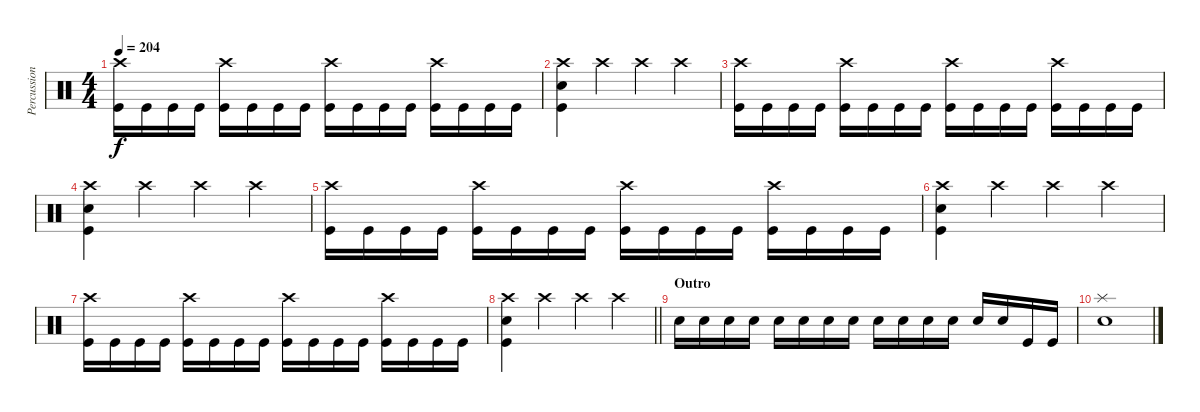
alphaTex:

\track ("Percussion" "Percussion") {instrument percussion}
\staff {score}
\articulation defaults
\ts (4 4)
\tempo 204
\clef neutral
\ks c
("Crash high (hit)" "Kick (hit)").16{dy f} "Kick (hit)".16 "Kick (hit)".16 "Kick (hit)".16 ("Crash high (hit)" "Kick (hit)").16 "Kick (hit)".16 "Kick (hit)".16 "Kick (hit)".16 ("Crash high (hit)" "Kick (hit)").16 "Kick (hit)".16 "Kick (hit)".16 "Kick (hit)".16 ("Crash high (hit)" "Kick (hit)").16 "Kick (hit)".16 "Kick (hit)".16 "Kick (hit)".16 |
("Crash high (hit)" "Electric Snare (hit)" "Kick (hit)").4 "Crash high (hit)".4 "Crash high (hit)".4 "Crash high (hit)".4 |
("Crash high (hit)" "Kick (hit)").16 "Kick (hit)".16 "Kick (hit)".16 "Kick (hit)".16 ("Crash high (hit)" "Kick (hit)").16 "Kick (hit)".16 "Kick (hit)".16 "Kick (hit)".16 ("Crash high (hit)" "Kick (hit)").16 "Kick (hit)".16 "Kick (hit)".16 "Kick (hit)".16 ("Crash high (hit)" "Kick (hit)").16 "Kick (hit)".16 "Kick (hit)".16 "Kick (hit)".16 |
("Crash high (hit)" "Electric Snare (hit)" "Kick (hit)").4 "Crash high (hit)".4 "Crash high (hit)".4 "Crash high (hit)".4 |
("Crash high (hit)" "Kick (hit)").16 "Kick (hit)".16 "Kick (hit)".16 "Kick (hit)".16 ("Crash high (hit)" "Kick (hit)").16 "Kick (hit)".16 "Kick (hit)".16 "Kick (hit)".16 ("Crash high (hit)" "Kick (hit)").16 "Kick (hit)".16 "Kick (hit)".16 "Kick (hit)".16 ("Crash high (hit)" "Kick (hit)").16 "Kick (hit)".16 "Kick (hit)".16 "Kick (hit)".16 |
("Crash high (hit)" "Electric Snare (hit)" "Kick (hit)").4 "Crash high (hit)".4 "Crash high (hit)".4 "Crash high (hit)".4 |
("Crash high (hit)" "Kick (hit)").16 "Kick (hit)".16 "Kick (hit)".16 "Kick (hit)".16 ("Crash high (hit)" "Kick (hit)").16 "Kick (hit)".16 "Kick (hit)".16 "Kick (hit)".16 ("Crash high (hit)" "Kick (hit)").16 "Kick (hit)".16 "Kick (hit)".16 "Kick (hit)".16 ("Crash high (hit)" "Kick (hit)").16 "Kick (hit)".16 "Kick (hit)".16 "Kick (hit)".16 |
\barLineRight lightlight
("Crash high (hit)" "Electric Snare (hit)" "Kick (hit)").4 "Crash high (hit)".4 "Crash high (hit)".4 "Crash high (hit)".4 |
\section ("" "Outro")
"Electric Snare (hit)".16 "Electric Snare (hit)".16 "Electric Snare (hit)".16 "Electric Snare (hit)".16 "Electric Snare (hit)".16 "Electric Snare (hit)".16 "Electric Snare (hit)".16 "Electric Snare (hit)".16 "Electric Snare (hit)".16 "Electric Snare (hit)".16 "Electric Snare (hit)".16 "Electric Snare (hit)".16 "Electric Snare (hit)".16 "Electric Snare (hit)".16 "Kick (hit)".16 "Kick (hit)".16 |
("Splash (hit)" "Electric Snare (hit)").1
